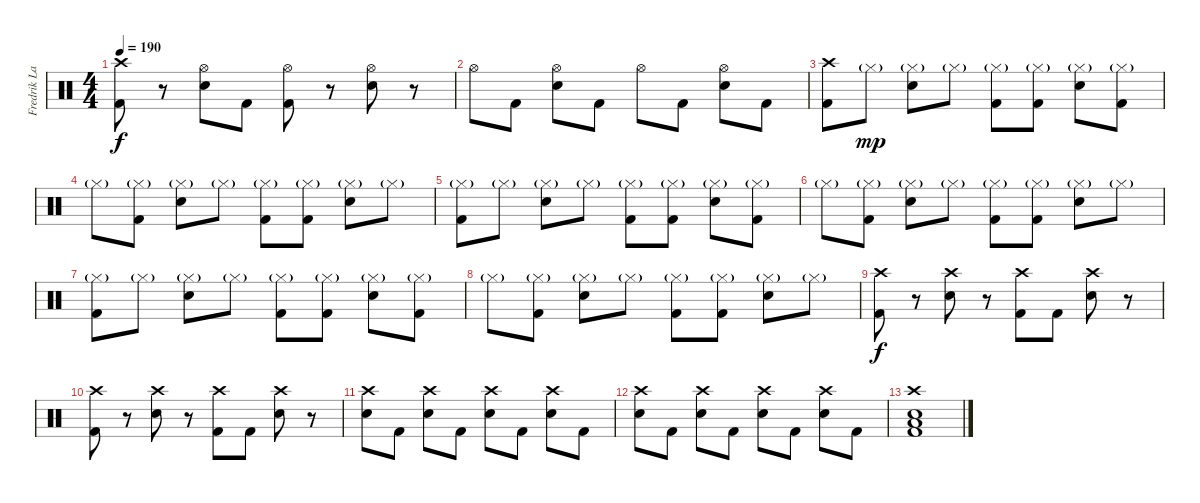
\track ("Fredrik Larson" "Fredrik La") {instrument percussion}
\staff {score}
\articulation defaults
\ts (4 4)
\tempo 190
\clef neutral
\ks c
("Crash high (hit)" "Kick (hit) 2").8{dy f} r.8 ("Hi-Hat (open)" "Snare (hit) 2").8 "Kick (hit) 2".8 ("Hi-Hat (open)" "Kick (hit) 2").8 r.8 ("Hi-Hat (open)" "Snare (hit) 2").8 r.8 |
"Hi-Hat (open)".8 "Kick (hit) 2".8 ("Hi-Hat (open)" "Snare (hit) 2").8 "Kick (hit) 2".8 "Hi-Hat (open)".8 "Kick (hit) 2".8 ("Hi-Hat (open)" "Snare (hit) 2").8 "Kick (hit) 2".8 |
("Crash high (hit)" "Kick (hit) 2").8 "Hi-Hat (closed)"{g}.8{dy mp} ("Hi-Hat (closed)"{g} "Snare (hit) 2").8 "Hi-Hat (closed)"{g}.8 ("Hi-Hat (closed)"{g} "Kick (hit) 2").8 ("Hi-Hat (closed)"{g} "Kick (hit) 2").8 ("Hi-Hat (closed)"{g} "Snare (hit) 2").8 ("Hi-Hat (closed)"{g} "Kick (hit) 2").8 |
"Hi-Hat (closed)"{g}.8 ("Hi-Hat (closed)"{g} "Kick (hit) 2").8 ("Hi-Hat (closed)"{g} "Snare (hit) 2").8 "Hi-Hat (closed)"{g}.8 ("Hi-Hat (closed)"{g} "Kick (hit) 2").8 ("Hi-Hat (closed)"{g} "Kick (hit) 2").8 ("Hi-Hat (closed)"{g} "Snare (hit) 2").8 "Hi-Hat (closed)"{g}.8 |
("Hi-Hat (closed)"{g} "Kick (hit) 2").8 "Hi-Hat (closed)"{g}.8 ("Hi-Hat (closed)"{g} "Snare (hit) 2").8 "Hi-Hat (closed)"{g}.8 ("Hi-Hat (closed)"{g} "Kick (hit) 2").8 ("Hi-Hat (closed)"{g} "Kick (hit) 2").8 ("Hi-Hat (closed)"{g} "Snare (hit) 2").8 ("Hi-Hat (closed)"{g} "Kick (hit) 2").8 |
"Hi-Hat (closed)"{g}.8 ("Hi-Hat (closed)"{g} "Kick (hit) 2").8 ("Hi-Hat (closed)"{g} "Snare (hit) 2").8 "Hi-Hat (closed)"{g}.8 ("Hi-Hat (closed)"{g} "Kick (hit) 2").8 ("Hi-Hat (closed)"{g} "Kick (hit) 2").8 ("Hi-Hat (closed)"{g} "Snare (hit) 2").8 "Hi-Hat (closed)"{g}.8 |
("Hi-Hat (closed)"{g} "Kick (hit) 2").8 "Hi-Hat (closed)"{g}.8 ("Hi-Hat (closed)"{g} "Snare (hit) 2").8 "Hi-Hat (closed)"{g}.8 ("Hi-Hat (closed)"{g} "Kick (hit) 2").8 ("Hi-Hat (closed)"{g} "Kick (hit) 2").8 ("Hi-Hat (closed)"{g} "Snare (hit) 2").8 ("Hi-Hat (closed)"{g} "Kick (hit) 2").8 |
"Hi-Hat (closed)"{g}.8 ("Hi-Hat (closed)"{g} "Kick (hit) 2").8 ("Hi-Hat (closed)"{g} "Snare (hit) 2").8 "Hi-Hat (closed)"{g}.8 ("Hi-Hat (closed)"{g} "Kick (hit) 2").8 ("Hi-Hat (closed)"{g} "Kick (hit) 2").8 ("Hi-Hat (closed)"{g} "Snare (hit) 2").8 "Hi-Hat (closed)"{g}.8 |
("Crash high (hit)" "Kick (hit) 2").8{dy f} r.8 ("Crash high (hit)" "Snare (hit) 2").8 r.8 ("Crash high (hit)" "Kick (hit) 2").8 "Kick (hit) 2".8 ("Crash high (hit)" "Snare (hit) 2").8 r.8 |
("Crash high (hit)" "Kick (hit) 2").8 r.8 ("Crash high (hit)" "Snare (hit) 2").8 r.8 ("Crash high (hit)" "Kick (hit) 2").8 "Kick (hit) 2".8 ("Crash high (hit)" "Snare (hit) 2").8 r.8 |
("Crash high (hit)" "Snare (hit) 2").8 "Kick (hit) 2".8 ("Crash high (hit)" "Snare (hit) 2").8 "Kick (hit) 2".8 ("Crash high (hit)" "Snare (hit) 2").8 "Kick (hit) 2".8 ("Crash high (hit)" "Snare (hit) 2").8 "Kick (hit) 2".8 |
("Crash high (hit)" "Snare (hit) 2").8 "Kick (hit) 2".8 ("Crash high (hit)" "Snare (hit) 2").8 "Kick (hit) 2".8 ("Crash high (hit)" "Snare (hit) 2").8 "Kick (hit) 2".8 ("Crash high (hit)" "Snare (hit) 2").8 "Kick (hit) 2".8 |
("Crash high (hit)" "Low Floor Tom (hit)" "Snare (hit) 2" "Kick (hit) 2").1
